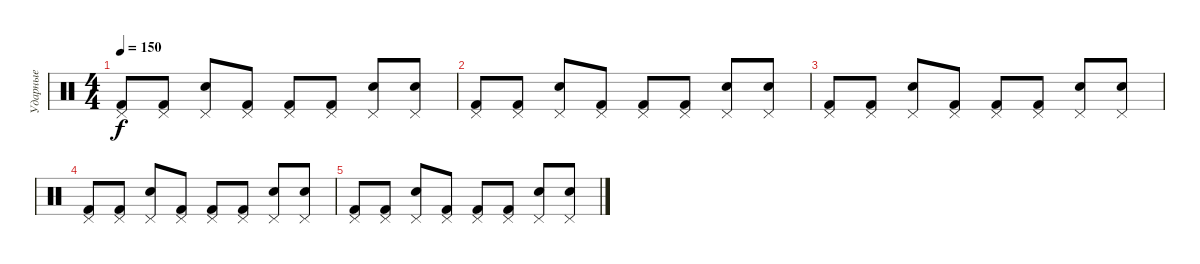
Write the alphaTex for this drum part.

\track ("Ударные" "Ударные") {instrument percussion}
\staff {score}
\articulation defaults
\ts (4 4)
\tempo 150
\clef neutral
\ks c
("Pedal Hi-Hat (hit)" "Kick (hit) 2").8{dy f} ("Pedal Hi-Hat (hit)" "Kick (hit) 2").8 ("Pedal Hi-Hat (hit)" "Electric Snare (hit)").8 ("Pedal Hi-Hat (hit)" "Kick (hit) 2").8 ("Pedal Hi-Hat (hit)" "Kick (hit) 2").8 ("Pedal Hi-Hat (hit)" "Kick (hit) 2").8 ("Pedal Hi-Hat (hit)" "Electric Snare (hit)").8 ("Pedal Hi-Hat (hit)" "Electric Snare (hit)").8 |
("Pedal Hi-Hat (hit)" "Kick (hit) 2").8 ("Pedal Hi-Hat (hit)" "Kick (hit) 2").8 ("Pedal Hi-Hat (hit)" "Electric Snare (hit)").8 ("Pedal Hi-Hat (hit)" "Kick (hit) 2").8 ("Pedal Hi-Hat (hit)" "Kick (hit) 2").8 ("Pedal Hi-Hat (hit)" "Kick (hit) 2").8 ("Pedal Hi-Hat (hit)" "Electric Snare (hit)").8 ("Pedal Hi-Hat (hit)" "Electric Snare (hit)").8 |
("Pedal Hi-Hat (hit)" "Kick (hit) 2").8 ("Pedal Hi-Hat (hit)" "Kick (hit) 2").8 ("Pedal Hi-Hat (hit)" "Electric Snare (hit)").8 ("Pedal Hi-Hat (hit)" "Kick (hit) 2").8 ("Pedal Hi-Hat (hit)" "Kick (hit) 2").8 ("Pedal Hi-Hat (hit)" "Kick (hit) 2").8 ("Pedal Hi-Hat (hit)" "Electric Snare (hit)").8 ("Pedal Hi-Hat (hit)" "Electric Snare (hit)").8 |
("Pedal Hi-Hat (hit)" "Kick (hit) 2").8 ("Pedal Hi-Hat (hit)" "Kick (hit) 2").8 ("Pedal Hi-Hat (hit)" "Electric Snare (hit)").8 ("Pedal Hi-Hat (hit)" "Kick (hit) 2").8 ("Pedal Hi-Hat (hit)" "Kick (hit) 2").8 ("Pedal Hi-Hat (hit)" "Kick (hit) 2").8 ("Pedal Hi-Hat (hit)" "Electric Snare (hit)").8 ("Pedal Hi-Hat (hit)" "Electric Snare (hit)").8 |
("Pedal Hi-Hat (hit)" "Kick (hit) 2").8 ("Pedal Hi-Hat (hit)" "Kick (hit) 2").8 ("Pedal Hi-Hat (hit)" "Electric Snare (hit)").8 ("Pedal Hi-Hat (hit)" "Kick (hit) 2").8 ("Pedal Hi-Hat (hit)" "Kick (hit) 2").8 ("Pedal Hi-Hat (hit)" "Kick (hit) 2").8 ("Pedal Hi-Hat (hit)" "Electric Snare (hit)").8 ("Pedal Hi-Hat (hit)" "Electric Snare (hit)").8
